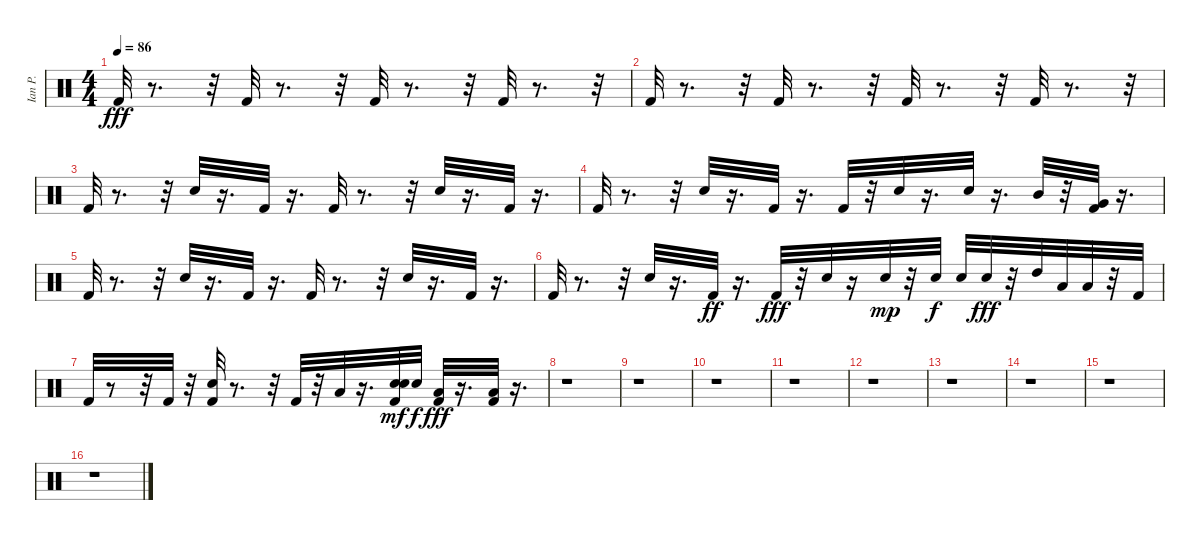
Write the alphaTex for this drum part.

\track ("Ian P." "Ian P.") {instrument percussion}
\staff {score}
\articulation defaults
\ts (4 4)
\tempo 86
\clef neutral
\ks c "Kick (hit) 2".32{dy fff}
r.8{d} r.32 "Kick (hit) 2".32 r.8{d} r.32 "Kick (hit) 2".32 r.8{d} r.32 "Kick (hit) 2".32 r.8{d} r.32 |
"Kick (hit) 2".32 r.8{d} r.32 "Kick (hit) 2".32 r.8{d} r.32 "Kick (hit) 2".32 r.8{d} r.32 "Kick (hit) 2".32 r.8{d} r.32 |
"Kick (hit) 2".32{volume 16 balance 8} r.8{d} r.32 "Snare (hit) 2".32 r.16{d} "Kick (hit) 2".32 r.16{d} "Kick (hit) 2".32 r.8{d} r.32 "Snare (hit) 2".32 r.16{d} "Kick (hit) 2".32 r.16{d} |
"Kick (hit) 2".32 r.8{d} r.32 "Snare (hit) 2".32 r.16{d} "Kick (hit) 2".32 r.16{d} "Kick (hit) 2".32 r.32 "Snare (hit) 2".32 r.16{d} "Snare (hit) 2".32 r.16{d} "Mid Tom (hit)".32 r.32 ("Very Low Tom (hit)" "Kick (hit) 2").32 r.16{d} |
"Kick (hit) 2".32 r.8{d} r.32 "Snare (hit) 2".32 r.16{d} "Kick (hit) 2".32 r.16{d} "Kick (hit) 2".32 r.8{d} r.32 "Snare (hit) 2".32 r.16{d} "Kick (hit) 2".32 r.16{d} |
"Kick (hit) 2".32 r.8{d} r.32 "Snare (hit) 2".32 r.16{d} "Kick (hit) 2".32{dy ff} r.16{d} "Kick (hit) 2".32{dy fff} r.32 "Snare (hit) 2".32 r.16 "Snare (hit) 2".32{dy mp} r.32 "Snare (hit) 2".32{dy f} "Snare (hit) 2".32 "Snare (hit) 2".32{dy fff} r.32 "High Tom (hit)".32 "Low Tom (hit)".32 "Low Floor Tom (hit)".32 r.32 "Kick (hit) 2".32 |
"Kick (hit) 2".32 r.8 r.32 "Kick (hit) 2".32 r.32 ("Snare (hit) 2" "Kick (hit) 2").32 r.8{d} r.32 "Kick (hit) 2".32 r.32 "Low Floor Tom (hit)".32 r.16{d} ("Kick (hit) 2" "Snare (hit) 2" "Snare (hit) 2").32{dy mf} "Snare (hit) 2".32{dy f} ("Kick (hit) 2" "Low Tom (hit)").32{dy fff} r.16{d} ("Kick (hit) 2" "Low Floor Tom (hit)").32 r.16{d} |
r.1 |
r.1 |
r.1 |
r.1 |
r.1 |
r.1 |
r.1 |
r.1 |
r.1
